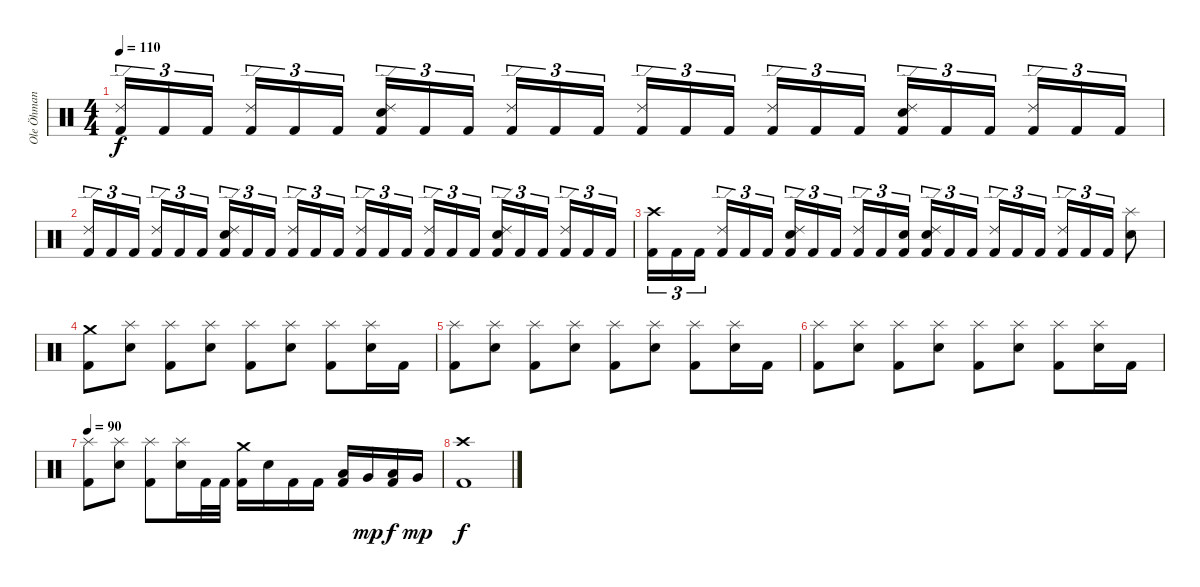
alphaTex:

\track ("Ole Öhman" "Ole Öhman") {instrument percussion}
\staff {score}
\articulation defaults
\ts (4 4)
\tempo 110
\clef neutral
\ks c
("Ride (edge) 2" "Kick (hit) 2").16{tu (3 2) dy f} "Kick (hit) 2".16{tu (3 2)} "Kick (hit) 2".16{tu (3 2)} ("Ride (edge) 2" "Kick (hit) 2").16{tu (3 2)} "Kick (hit) 2".16{tu (3 2)} "Kick (hit) 2".16{tu (3 2)} ("Ride (edge) 2" "Electric Snare (hit)" "Kick (hit) 2").16{tu (3 2)} "Kick (hit) 2".16{tu (3 2)} "Kick (hit) 2".16{tu (3 2)} ("Ride (edge) 2" "Kick (hit) 2").16{tu (3 2)} "Kick (hit) 2".16{tu (3 2)} "Kick (hit) 2".16{tu (3 2)} ("Ride (edge) 2" "Kick (hit) 2").16{tu (3 2)} "Kick (hit) 2".16{tu (3 2)} "Kick (hit) 2".16{tu (3 2)} ("Ride (edge) 2" "Kick (hit) 2").16{tu (3 2)} "Kick (hit) 2".16{tu (3 2)} "Kick (hit) 2".16{tu (3 2)} ("Ride (edge) 2" "Electric Snare (hit)" "Kick (hit) 2").16{tu (3 2)} "Kick (hit) 2".16{tu (3 2)} "Kick (hit) 2".16{tu (3 2)} ("Ride (edge) 2" "Kick (hit) 2").16{tu (3 2)} "Kick (hit) 2".16{tu (3 2)} "Kick (hit) 2".16{tu (3 2)} |
("Ride (edge) 2" "Kick (hit) 2").16{tu (3 2)} "Kick (hit) 2".16{tu (3 2)} "Kick (hit) 2".16{tu (3 2)} ("Ride (edge) 2" "Kick (hit) 2").16{tu (3 2)} "Kick (hit) 2".16{tu (3 2)} "Kick (hit) 2".16{tu (3 2)} ("Ride (edge) 2" "Electric Snare (hit)" "Kick (hit) 2").16{tu (3 2)} "Kick (hit) 2".16{tu (3 2)} "Kick (hit) 2".16{tu (3 2)} ("Ride (edge) 2" "Kick (hit) 2").16{tu (3 2)} "Kick (hit) 2".16{tu (3 2)} "Kick (hit) 2".16{tu (3 2)} ("Ride (edge) 2" "Kick (hit) 2").16{tu (3 2)} "Kick (hit) 2".16{tu (3 2)} "Kick (hit) 2".16{tu (3 2)} ("Ride (edge) 2" "Kick (hit) 2").16{tu (3 2)} "Kick (hit) 2".16{tu (3 2)} "Kick (hit) 2".16{tu (3 2)} ("Ride (edge) 2" "Electric Snare (hit)" "Kick (hit) 2").16{tu (3 2)} "Kick (hit) 2".16{tu (3 2)} "Kick (hit) 2".16{tu (3 2)} ("Ride (edge) 2" "Kick (hit) 2").16{tu (3 2)} "Kick (hit) 2".16{tu (3 2)} "Kick (hit) 2".16{tu (3 2)} |
("Crash high (hit)" "Kick (hit) 2").16{tu (3 2)} "Kick (hit) 2".16{tu (3 2)} "Kick (hit) 2".16{tu (3 2)} ("Ride (edge) 2" "Kick (hit) 2").16{tu (3 2)} "Kick (hit) 2".16{tu (3 2)} "Kick (hit) 2".16{tu (3 2)} ("Ride (edge) 2" "Electric Snare (hit)" "Kick (hit) 2").16{tu (3 2)} "Kick (hit) 2".16{tu (3 2)} "Kick (hit) 2".16{tu (3 2)} ("Ride (edge) 2" "Kick (hit) 2").16{tu (3 2)} "Kick (hit) 2".16{tu (3 2)} ("Electric Snare (hit)" "Kick (hit) 2").16{tu (3 2)} ("Ride (edge) 2" "Electric Snare (hit)" "Kick (hit) 2").16{tu (3 2)} "Kick (hit) 2".16{tu (3 2)} "Kick (hit) 2".16{tu (3 2)} ("Ride (edge) 2" "Kick (hit) 2").16{tu (3 2)} "Kick (hit) 2".16{tu (3 2)} "Kick (hit) 2".16{tu (3 2)} ("Ride (edge) 2" "Kick (hit) 2").16{tu (3 2)} "Kick (hit) 2".16{tu (3 2)} "Kick (hit) 2".16{tu (3 2)} ("Splash (hit)" "Electric Snare (hit)").8 |
("Crash medium (hit)" "Kick (hit) 2").8 ("Splash (hit)" "Electric Snare (hit)").8 ("Splash (hit)" "Kick (hit) 2").8 ("Splash (hit)" "Electric Snare (hit)").8 ("Splash (hit)" "Kick (hit) 2").8 ("Splash (hit)" "Electric Snare (hit)").8 ("Splash (hit)" "Kick (hit) 2").8 ("Splash (hit)" "Electric Snare (hit)").16 "Kick (hit) 2".16 |
("Splash (hit)" "Kick (hit) 2").8 ("Splash (hit)" "Electric Snare (hit)").8 ("Splash (hit)" "Kick (hit) 2").8 ("Splash (hit)" "Electric Snare (hit)").8 ("Splash (hit)" "Kick (hit) 2").8 ("Splash (hit)" "Electric Snare (hit)").8 ("Splash (hit)" "Kick (hit) 2").8 ("Splash (hit)" "Electric Snare (hit)").16 "Kick (hit) 2".16 |
("Splash (hit)" "Kick (hit) 2").8 ("Splash (hit)" "Electric Snare (hit)").8 ("Splash (hit)" "Kick (hit) 2").8 ("Splash (hit)" "Electric Snare (hit)").8 ("Splash (hit)" "Kick (hit) 2").8 ("Splash (hit)" "Electric Snare (hit)").8 ("Splash (hit)" "Kick (hit) 2").8 ("Splash (hit)" "Electric Snare (hit)").16 "Kick (hit) 2".16 |
\tempo 90
("Splash (hit)" "Kick (hit) 2").8 ("Splash (hit)" "Electric Snare (hit)").8 ("Splash (hit)" "Kick (hit) 2").8 ("Splash (hit)" "Electric Snare (hit)").16 "Kick (hit) 2".32 "Kick (hit) 2".32 ("Crash medium (hit)" "Kick (hit) 2").16 "Electric Snare (hit)".16 "Kick (hit) 2".16 "Kick (hit) 2".16 ("Low Floor Tom (hit)" "Kick (hit) 2").16 "Very Low Tom (hit)".16{dy mp} ("Low Floor Tom (hit)" "Kick (hit) 2").16{dy f} "Very Low Tom (hit)".16{dy mp} |
("Crash high (hit)" "Kick (hit) 2").1{dy f}
